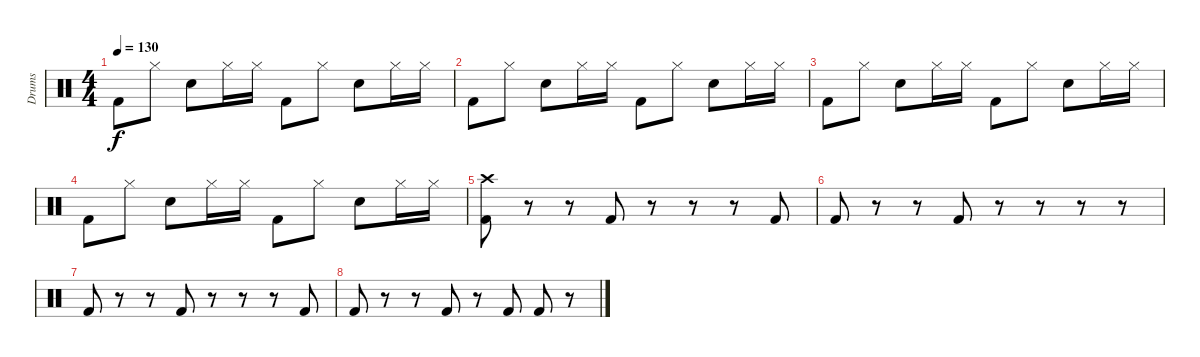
\track ("Drums" "Drums") {instrument percussion}
\staff {score}
\articulation defaults
\ts (4 4)
\tempo 130
\clef neutral
\ks c "Kick (hit) 2".8{dy f} "Hi-Hat (closed)".8 "Snare (hit) 2".8 "Hi-Hat (closed)".16 "Hi-Hat (closed)".16 "Kick (hit) 2".8 "Hi-Hat (closed)".8 "Snare (hit) 2".8 "Hi-Hat (closed)".16 "Hi-Hat (closed)".16
|
"Kick (hit) 2".8 "Hi-Hat (closed)".8 "Snare (hit) 2".8 "Hi-Hat (closed)".16 "Hi-Hat (closed)".16 "Kick (hit) 2".8 "Hi-Hat (closed)".8 "Snare (hit) 2".8 "Hi-Hat (closed)".16 "Hi-Hat (closed)".16 |
"Kick (hit) 2".8 "Hi-Hat (closed)".8 "Snare (hit) 2".8 "Hi-Hat (closed)".16 "Hi-Hat (closed)".16 "Kick (hit) 2".8 "Hi-Hat (closed)".8 "Snare (hit) 2".8 "Hi-Hat (closed)".16 "Hi-Hat (closed)".16 |
"Kick (hit) 2".8 "Hi-Hat (closed)".8 "Snare (hit) 2".8 "Hi-Hat (closed)".16 "Hi-Hat (closed)".16 "Kick (hit) 2".8 "Hi-Hat (closed)".8 "Snare (hit) 2".8 "Hi-Hat (closed)".16 "Hi-Hat (closed)".16 |
("Crash high (hit)" "Kick (hit) 2").8 r.8 r.8 "Kick (hit) 2".8 r.8 r.8 r.8 "Kick (hit) 2".8 |
"Kick (hit) 2".8 r.8 r.8 "Kick (hit) 2".8 r.8 r.8 r.8 r.8 |
"Kick (hit) 2".8 r.8 r.8 "Kick (hit) 2".8 r.8 r.8 r.8 "Kick (hit) 2".8 |
"Kick (hit) 2".8 r.8 r.8 "Kick (hit) 2".8 r.8 "Kick (hit) 2".8 "Kick (hit) 2".8 r.8
